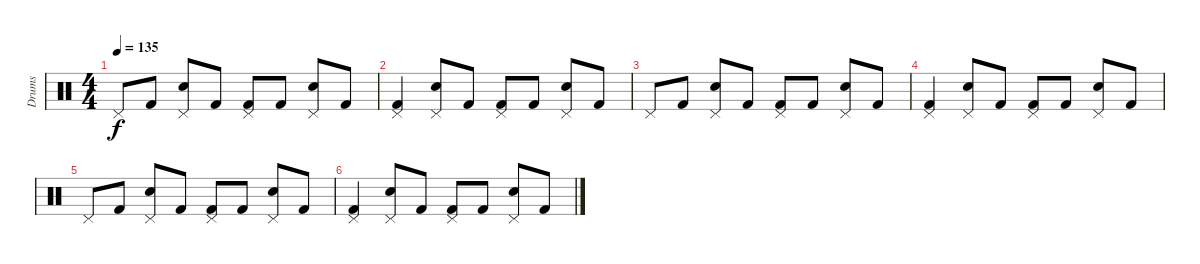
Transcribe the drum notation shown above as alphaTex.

\track ("Drums" "Drums") {instrument percussion}
\staff {score}
\articulation defaults
\ts (4 4)
\tempo 135
\clef neutral
\ks c "Pedal Hi-Hat (hit)".8{dy f} "Kick (hit) 2".8
("Pedal Hi-Hat (hit)" "Electric Snare (hit)").8 "Kick (hit) 2".8 ("Pedal Hi-Hat (hit)" "Kick (hit) 2").8 "Kick (hit) 2".8 ("Pedal Hi-Hat (hit)" "Electric Snare (hit)").8 "Kick (hit) 2".8 |
("Pedal Hi-Hat (hit)" "Kick (hit) 2").4{volume 6} ("Pedal Hi-Hat (hit)" "Electric Snare (hit)").8 "Kick (hit) 2".8 ("Pedal Hi-Hat (hit)" "Kick (hit) 2").8 "Kick (hit) 2".8 ("Pedal Hi-Hat (hit)" "Electric Snare (hit)").8 "Kick (hit) 2".8 |
"Pedal Hi-Hat (hit)".8 "Kick (hit) 2".8 ("Pedal Hi-Hat (hit)" "Electric Snare (hit)").8 "Kick (hit) 2".8 ("Pedal Hi-Hat (hit)" "Kick (hit) 2").8 "Kick (hit) 2".8 ("Pedal Hi-Hat (hit)" "Electric Snare (hit)").8 "Kick (hit) 2".8 |
("Pedal Hi-Hat (hit)" "Kick (hit) 2").4{volume 3} ("Pedal Hi-Hat (hit)" "Electric Snare (hit)").8 "Kick (hit) 2".8 ("Pedal Hi-Hat (hit)" "Kick (hit) 2").8 "Kick (hit) 2".8 ("Pedal Hi-Hat (hit)" "Electric Snare (hit)").8 "Kick (hit) 2".8 |
"Pedal Hi-Hat (hit)".8 "Kick (hit) 2".8 ("Pedal Hi-Hat (hit)" "Electric Snare (hit)").8 "Kick (hit) 2".8 ("Pedal Hi-Hat (hit)" "Kick (hit) 2").8 "Kick (hit) 2".8 ("Pedal Hi-Hat (hit)" "Electric Snare (hit)").8 "Kick (hit) 2".8 |
("Pedal Hi-Hat (hit)" "Kick (hit) 2").4{volume 0} ("Pedal Hi-Hat (hit)" "Electric Snare (hit)").8 "Kick (hit) 2".8 ("Pedal Hi-Hat (hit)" "Kick (hit) 2").8 "Kick (hit) 2".8 ("Pedal Hi-Hat (hit)" "Electric Snare (hit)").8 "Kick (hit) 2".8
